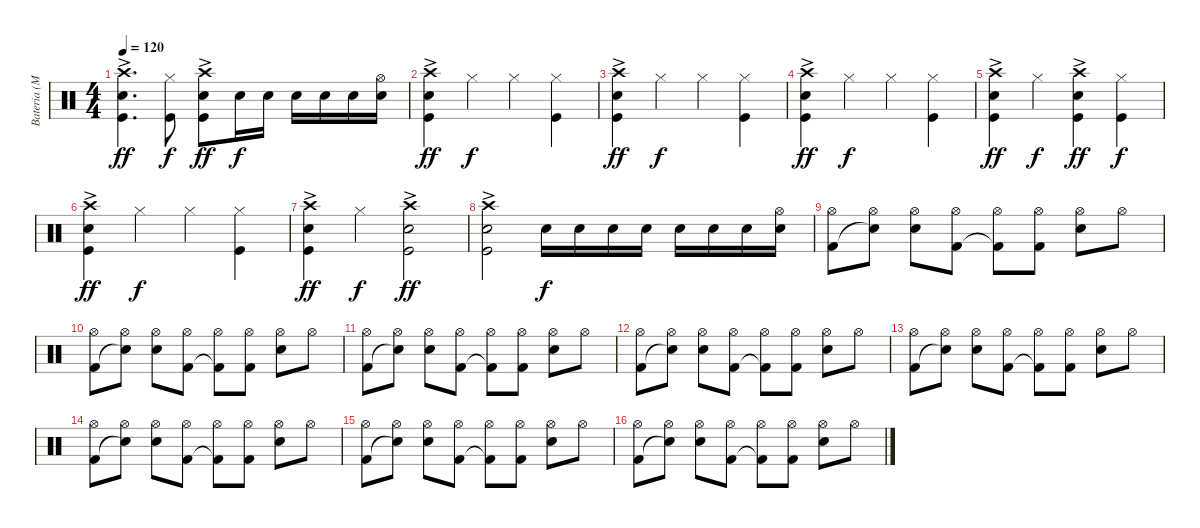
\track ("Bateria (Mauricio Llona)" "Bateria (M") {instrument percussion}
\staff {score}
\articulation defaults
\ts (4 4)
\tempo 120
\clef neutral
\ks c
("Crash high (hit)" "Snare (hit) 2"{ac} "Kick (hit)").4{d dy ff} ("Hi-Hat (closed)" "Kick (hit)").8{dy f} ("Crash high (hit)" "Snare (hit) 2"{ac} "Kick (hit)").8{dy ff} "Snare (hit) 2".16{dy f} "Snare (hit) 2".16 "Snare (hit) 2".16 "Snare (hit) 2".16 "Snare (hit) 2".16 ("Hi-Hat (open)" "Snare (hit) 2").16 |
("Crash high (hit)" "Snare (hit) 2"{ac} "Kick (hit)").4{dy ff} "Hi-Hat (closed)".4{dy f} "Hi-Hat (closed)".4 ("Hi-Hat (closed)" "Kick (hit)").4 |
("Crash high (hit)" "Snare (hit) 2"{ac} "Kick (hit)").4{dy ff} "Hi-Hat (closed)".4{dy f} "Hi-Hat (closed)".4 ("Hi-Hat (closed)" "Kick (hit)").4 |
("Crash high (hit)" "Snare (hit) 2"{ac} "Kick (hit)").4{dy ff} "Hi-Hat (closed)".4{dy f} "Hi-Hat (closed)".4 ("Hi-Hat (closed)" "Kick (hit)").4 |
("Crash high (hit)" "Snare (hit) 2"{ac} "Kick (hit)").4{dy ff} "Hi-Hat (closed)".4{dy f} ("Crash high (hit)" "Snare (hit) 2"{ac} "Kick (hit)").4{dy ff} ("Hi-Hat (closed)" "Kick (hit)").4{dy f} |
("Crash high (hit)" "Snare (hit) 2"{ac} "Kick (hit)").4{dy ff} "Hi-Hat (closed)".4{dy f} "Hi-Hat (closed)".4 ("Hi-Hat (closed)" "Kick (hit)").4 |
("Crash high (hit)" "Snare (hit) 2"{ac} "Kick (hit)").4{dy ff} "Hi-Hat (closed)".4{dy f} ("Crash high (hit)" "Snare (hit) 2"{ac} "Kick (hit)").2{dy ff} |
("Crash high (hit)" "Snare (hit) 2"{ac} "Kick (hit)").2 "Snare (hit) 2".16{dy f} "Snare (hit) 2".16 "Snare (hit) 2".16 "Snare (hit) 2".16 "Snare (hit) 2".16 "Snare (hit) 2".16 "Snare (hit) 2".16 ("Hi-Hat (open)" "Snare (hit) 2").16 |
("Hi-Hat (open)" "Kick (hit) 2").8 ("Hi-Hat (open)" "Snare (hit)"{t}).8 ("Hi-Hat (open)" "Electric Snare (hit)").8 ("Hi-Hat (open)" "Kick (hit) 2").8 ("Hi-Hat (open)" "Kick (hit) 2"{t}).8 ("Hi-Hat (open)" "Kick (hit) 2").8 ("Hi-Hat (open)" "Electric Snare (hit)").8 "Hi-Hat (open)".8 |
("Hi-Hat (open)" "Kick (hit) 2").8 ("Hi-Hat (open)" "Snare (hit)"{t}).8 ("Hi-Hat (open)" "Electric Snare (hit)").8 ("Hi-Hat (open)" "Kick (hit) 2").8 ("Hi-Hat (open)" "Kick (hit) 2"{t}).8 ("Hi-Hat (open)" "Kick (hit) 2").8 ("Hi-Hat (open)" "Electric Snare (hit)").8 "Hi-Hat (open)".8 |
("Hi-Hat (open)" "Kick (hit) 2").8 ("Hi-Hat (open)" "Snare (hit)"{t}).8 ("Hi-Hat (open)" "Electric Snare (hit)").8 ("Hi-Hat (open)" "Kick (hit) 2").8 ("Hi-Hat (open)" "Kick (hit) 2"{t}).8 ("Hi-Hat (open)" "Kick (hit) 2").8 ("Hi-Hat (open)" "Electric Snare (hit)").8 "Hi-Hat (open)".8 |
("Hi-Hat (open)" "Kick (hit) 2").8 ("Hi-Hat (open)" "Snare (hit)"{t}).8 ("Hi-Hat (open)" "Electric Snare (hit)").8 ("Hi-Hat (open)" "Kick (hit) 2").8 ("Hi-Hat (open)" "Kick (hit) 2"{t}).8 ("Hi-Hat (open)" "Kick (hit) 2").8 ("Hi-Hat (open)" "Electric Snare (hit)").8 "Hi-Hat (open)".8 |
("Hi-Hat (open)" "Kick (hit) 2").8 ("Hi-Hat (open)" "Snare (hit)"{t}).8 ("Hi-Hat (open)" "Electric Snare (hit)").8 ("Hi-Hat (open)" "Kick (hit) 2").8 ("Hi-Hat (open)" "Kick (hit) 2"{t}).8 ("Hi-Hat (open)" "Kick (hit) 2").8 ("Hi-Hat (open)" "Electric Snare (hit)").8 "Hi-Hat (open)".8 |
("Hi-Hat (open)" "Kick (hit) 2").8 ("Hi-Hat (open)" "Snare (hit)"{t}).8 ("Hi-Hat (open)" "Electric Snare (hit)").8 ("Hi-Hat (open)" "Kick (hit) 2").8 ("Hi-Hat (open)" "Kick (hit) 2"{t}).8 ("Hi-Hat (open)" "Kick (hit) 2").8 ("Hi-Hat (open)" "Electric Snare (hit)").8 "Hi-Hat (open)".8 |
("Hi-Hat (open)" "Kick (hit) 2").8 ("Hi-Hat (open)" "Snare (hit)"{t}).8 ("Hi-Hat (open)" "Electric Snare (hit)").8 ("Hi-Hat (open)" "Kick (hit) 2").8 ("Hi-Hat (open)" "Kick (hit) 2"{t}).8 ("Hi-Hat (open)" "Kick (hit) 2").8 ("Hi-Hat (open)" "Electric Snare (hit)").8 "Hi-Hat (open)".8 |
("Hi-Hat (open)" "Kick (hit) 2").8 ("Hi-Hat (open)" "Snare (hit)"{t}).8 ("Hi-Hat (open)" "Electric Snare (hit)").8 ("Hi-Hat (open)" "Kick (hit) 2").8 ("Hi-Hat (open)" "Kick (hit) 2"{t}).8 ("Hi-Hat (open)" "Kick (hit) 2").8 ("Hi-Hat (open)" "Electric Snare (hit)").8 "Hi-Hat (open)".8
